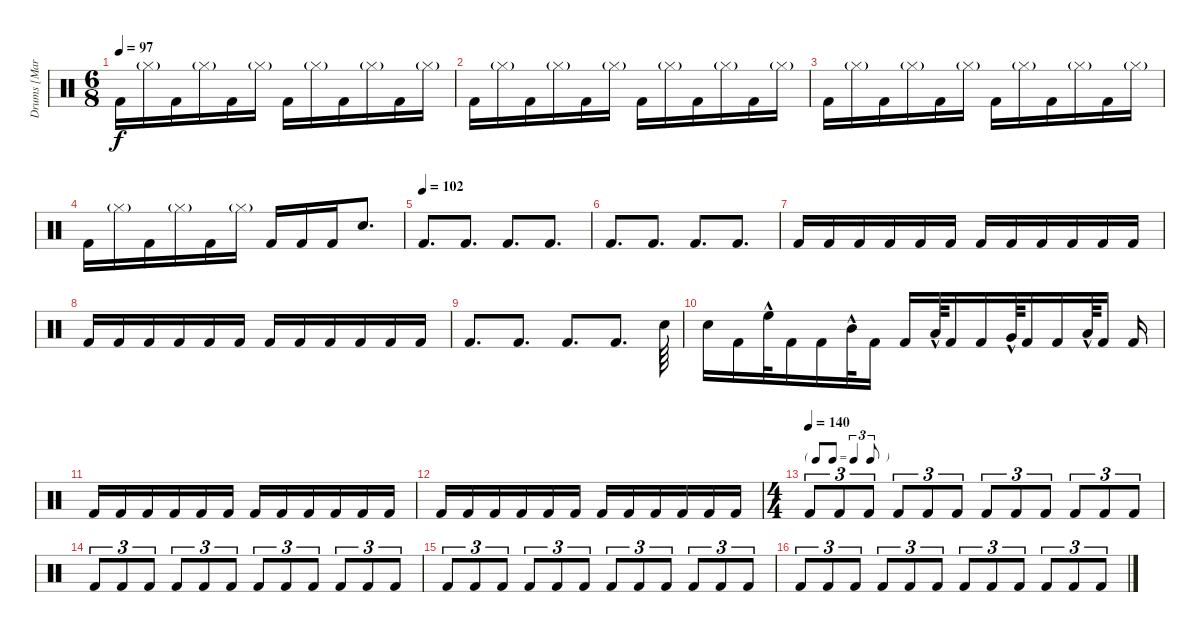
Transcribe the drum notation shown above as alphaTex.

\track ("Drums [Martin Lopez]" "Drums [Mar") {instrument percussion}
\staff {score}
\articulation defaults
\ts (6 8)
\tempo 97
\clef neutral
\ks c "Kick (hit) 2".16{dy f} "Hi-Hat (closed)"{g}.16 "Kick (hit) 2".16 "Hi-Hat (closed)"{g}.16 "Kick (hit) 2".16 "Hi-Hat (closed)"{g}.16 "Kick (hit) 2".16 "Hi-Hat (closed)"{g}.16 "Kick (hit) 2".16 "Hi-Hat (closed)"{g}.16 "Kick (hit) 2".16 "Hi-Hat (closed)"{g}.16
|
"Kick (hit) 2".16 "Hi-Hat (closed)"{g}.16 "Kick (hit) 2".16 "Hi-Hat (closed)"{g}.16 "Kick (hit) 2".16 "Hi-Hat (closed)"{g}.16 "Kick (hit) 2".16 "Hi-Hat (closed)"{g}.16 "Kick (hit) 2".16 "Hi-Hat (closed)"{g}.16 "Kick (hit) 2".16 "Hi-Hat (closed)"{g}.16 |
"Kick (hit) 2".16 "Hi-Hat (closed)"{g}.16 "Kick (hit) 2".16 "Hi-Hat (closed)"{g}.16 "Kick (hit) 2".16 "Hi-Hat (closed)"{g}.16 "Kick (hit) 2".16 "Hi-Hat (closed)"{g}.16 "Kick (hit) 2".16 "Hi-Hat (closed)"{g}.16 "Kick (hit) 2".16 "Hi-Hat (closed)"{g}.16 |
"Kick (hit) 2".16 "Hi-Hat (closed)"{g}.16 "Kick (hit) 2".16 "Hi-Hat (closed)"{g}.16 "Kick (hit) 2".16 "Hi-Hat (closed)"{g}.16 "Kick (hit) 2".16 "Kick (hit) 2".16 "Kick (hit) 2".16 "Snare (hit) 2".8{d} |
\tempo (102)
"Kick (hit) 2".8{d} "Kick (hit) 2".8{d} "Kick (hit) 2".8{d} "Kick (hit) 2".8{d} |
"Kick (hit) 2".8{d} "Kick (hit) 2".8{d} "Kick (hit) 2".8{d} "Kick (hit) 2".8{d} |
"Kick (hit) 2".16 "Kick (hit) 2".16 "Kick (hit) 2".16 "Kick (hit) 2".16 "Kick (hit) 2".16 "Kick (hit) 2".16 "Kick (hit) 2".16 "Kick (hit) 2".16 "Kick (hit) 2".16 "Kick (hit) 2".16 "Kick (hit) 2".16 "Kick (hit) 2".16 |
"Kick (hit) 2".16 "Kick (hit) 2".16 "Kick (hit) 2".16 "Kick (hit) 2".16 "Kick (hit) 2".16 "Kick (hit) 2".16 "Kick (hit) 2".16 "Kick (hit) 2".16 "Kick (hit) 2".16 "Kick (hit) 2".16 "Kick (hit) 2".16 "Kick (hit) 2".16 |
"Kick (hit) 2".8{d} "Kick (hit) 2".8{d} "Kick (hit) 2".8{d} "Kick (hit) 2".8{d} "Snare (hit) 2".64 |
"Snare (hit) 2".16 "Kick (hit) 2".16 "High Floor Tom (hit)"{hac}.32 "Kick (hit) 2".16 "Kick (hit) 2".16 "Mid Tom (hit)"{hac}.32 "Kick (hit) 2".16 "Kick (hit) 2".16 "Low Tom (hit)"{hac}.64 "Kick (hit) 2".16 "Kick (hit) 2".16 "Very Low Tom (hit)"{hac}.64 "Kick (hit) 2".16 "Kick (hit) 2".16 "Low Floor Tom (hit)"{hac}.64 "Kick (hit) 2".16 "Kick (hit) 2".16 |
"Kick (hit) 2".16 "Kick (hit) 2".16 "Kick (hit) 2".16 "Kick (hit) 2".16 "Kick (hit) 2".16 "Kick (hit) 2".16 "Kick (hit) 2".16 "Kick (hit) 2".16 "Kick (hit) 2".16 "Kick (hit) 2".16 "Kick (hit) 2".16 "Kick (hit) 2".16 |
"Kick (hit) 2".16 "Kick (hit) 2".16 "Kick (hit) 2".16 "Kick (hit) 2".16 "Kick (hit) 2".16 "Kick (hit) 2".16 "Kick (hit) 2".16 "Kick (hit) 2".16 "Kick (hit) 2".16 "Kick (hit) 2".16 "Kick (hit) 2".16 "Kick (hit) 2".16 |
\ts (4 4)
\tf triplet8th
\tempo (140)
"Kick (hit) 2".8{tu (3 2)} "Kick (hit) 2".8{tu (3 2)} "Kick (hit) 2".8{tu (3 2)} "Kick (hit) 2".8{tu (3 2)} "Kick (hit) 2".8{tu (3 2)} "Kick (hit) 2".8{tu (3 2)} "Kick (hit) 2".8{tu (3 2)} "Kick (hit) 2".8{tu (3 2)} "Kick (hit) 2".8{tu (3 2)} "Kick (hit) 2".8{tu (3 2)} "Kick (hit) 2".8{tu (3 2)} "Kick (hit) 2".8{tu (3 2)} |
"Kick (hit) 2".8{tu (3 2)} "Kick (hit) 2".8{tu (3 2)} "Kick (hit) 2".8{tu (3 2)} "Kick (hit) 2".8{tu (3 2)} "Kick (hit) 2".8{tu (3 2)} "Kick (hit) 2".8{tu (3 2)} "Kick (hit) 2".8{tu (3 2)} "Kick (hit) 2".8{tu (3 2)} "Kick (hit) 2".8{tu (3 2)} "Kick (hit) 2".8{tu (3 2)} "Kick (hit) 2".8{tu (3 2)} "Kick (hit) 2".8{tu (3 2)} |
"Kick (hit) 2".8{tu (3 2)} "Kick (hit) 2".8{tu (3 2)} "Kick (hit) 2".8{tu (3 2)} "Kick (hit) 2".8{tu (3 2)} "Kick (hit) 2".8{tu (3 2)} "Kick (hit) 2".8{tu (3 2)} "Kick (hit) 2".8{tu (3 2)} "Kick (hit) 2".8{tu (3 2)} "Kick (hit) 2".8{tu (3 2)} "Kick (hit) 2".8{tu (3 2)} "Kick (hit) 2".8{tu (3 2)} "Kick (hit) 2".8{tu (3 2)} |
"Kick (hit) 2".8{tu (3 2)} "Kick (hit) 2".8{tu (3 2)} "Kick (hit) 2".8{tu (3 2)} "Kick (hit) 2".8{tu (3 2)} "Kick (hit) 2".8{tu (3 2)} "Kick (hit) 2".8{tu (3 2)} "Kick (hit) 2".8{tu (3 2)} "Kick (hit) 2".8{tu (3 2)} "Kick (hit) 2".8{tu (3 2)} "Kick (hit) 2".8{tu (3 2)} "Kick (hit) 2".8{tu (3 2)} "Kick (hit) 2".8{tu (3 2)}
